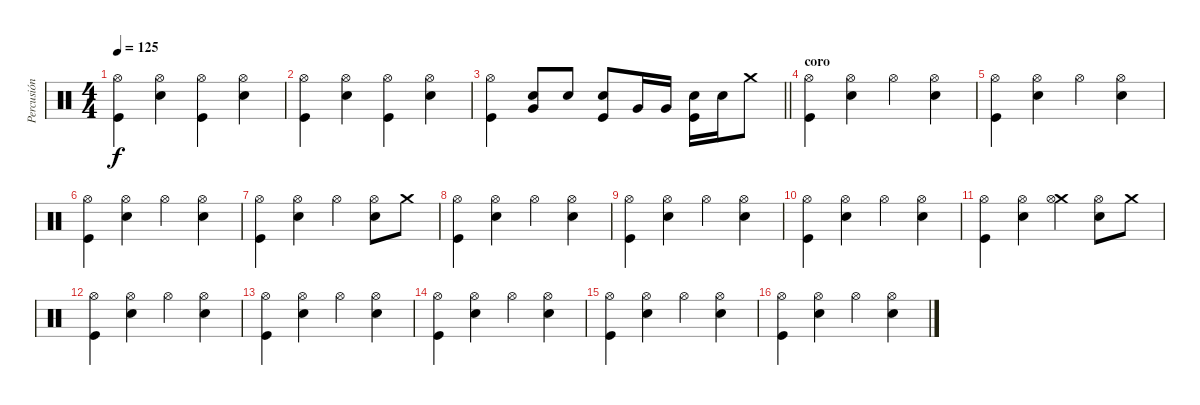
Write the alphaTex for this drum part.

\track ("Percusión" "Percusión") {instrument percussion}
\staff {score}
\articulation defaults
\ts (4 4)
\tempo 125
\clef neutral
\ks c
("Hi-Hat (open)" "Kick (hit)").4{dy f} ("Hi-Hat (open)" "Electric Snare (hit)").4 ("Hi-Hat (open)" "Kick (hit)").4 ("Hi-Hat (open)" "Electric Snare (hit)").4 |
("Hi-Hat (open)" "Kick (hit)").4 ("Hi-Hat (open)" "Electric Snare (hit)").4 ("Hi-Hat (open)" "Kick (hit)").4 ("Hi-Hat (open)" "Electric Snare (hit)").4 |
\barLineRight lightlight
("Hi-Hat (open)" "Kick (hit)").4 ("Electric Snare (hit)" "Very Low Tom (hit)").8 "Electric Snare (hit)".8 ("Electric Snare (hit)" "Kick (hit)").8 "Very Low Tom (hit)".16 "Very Low Tom (hit)".16 ("Electric Snare (hit)" "Kick (hit)").16 "Electric Snare (hit)".16 "Crash medium (hit)".8 |
\section ("" "coro")
("Hi-Hat (open)" "Kick (hit)").4 ("Hi-Hat (open)" "Electric Snare (hit)").4 "Hi-Hat (open)".4 ("Hi-Hat (open)" "Electric Snare (hit)").4 |
("Hi-Hat (open)" "Kick (hit)").4 ("Hi-Hat (open)" "Electric Snare (hit)").4 "Hi-Hat (open)".4 ("Hi-Hat (open)" "Electric Snare (hit)").4 |
("Hi-Hat (open)" "Kick (hit)").4 ("Hi-Hat (open)" "Electric Snare (hit)").4 "Hi-Hat (open)".4 ("Hi-Hat (open)" "Electric Snare (hit)").4 |
("Hi-Hat (open)" "Kick (hit)").4 ("Hi-Hat (open)" "Electric Snare (hit)").4 "Hi-Hat (open)".4 ("Hi-Hat (open)" "Electric Snare (hit)").8 "Crash medium (hit)".8 |
("Hi-Hat (open)" "Kick (hit)").4 ("Hi-Hat (open)" "Electric Snare (hit)").4 "Hi-Hat (open)".4 ("Hi-Hat (open)" "Electric Snare (hit)").4 |
("Hi-Hat (open)" "Kick (hit)").4 ("Hi-Hat (open)" "Electric Snare (hit)").4 "Hi-Hat (open)".4 ("Hi-Hat (open)" "Electric Snare (hit)").4 |
("Hi-Hat (open)" "Kick (hit)").4 ("Hi-Hat (open)" "Electric Snare (hit)").4 "Hi-Hat (open)".4 ("Hi-Hat (open)" "Electric Snare (hit)").4 |
("Hi-Hat (open)" "Kick (hit)").4 ("Hi-Hat (open)" "Electric Snare (hit)").4 ("Crash medium (hit)" "Hi-Hat (open)").4 ("Hi-Hat (open)" "Electric Snare (hit)").8 "Crash medium (hit)".8 |
("Hi-Hat (open)" "Kick (hit)").4 ("Hi-Hat (open)" "Electric Snare (hit)").4 "Hi-Hat (open)".4 ("Hi-Hat (open)" "Electric Snare (hit)").4 |
("Hi-Hat (open)" "Kick (hit)").4 ("Hi-Hat (open)" "Electric Snare (hit)").4 "Hi-Hat (open)".4 ("Hi-Hat (open)" "Electric Snare (hit)").4 |
("Hi-Hat (open)" "Kick (hit)").4 ("Hi-Hat (open)" "Electric Snare (hit)").4 "Hi-Hat (open)".4 ("Hi-Hat (open)" "Electric Snare (hit)").4 |
("Hi-Hat (open)" "Kick (hit)").4 ("Hi-Hat (open)" "Electric Snare (hit)").4 "Hi-Hat (open)".4 ("Hi-Hat (open)" "Electric Snare (hit)").4 |
("Hi-Hat (open)" "Kick (hit)").4 ("Hi-Hat (open)" "Electric Snare (hit)").4 "Hi-Hat (open)".4 ("Hi-Hat (open)" "Electric Snare (hit)").4
